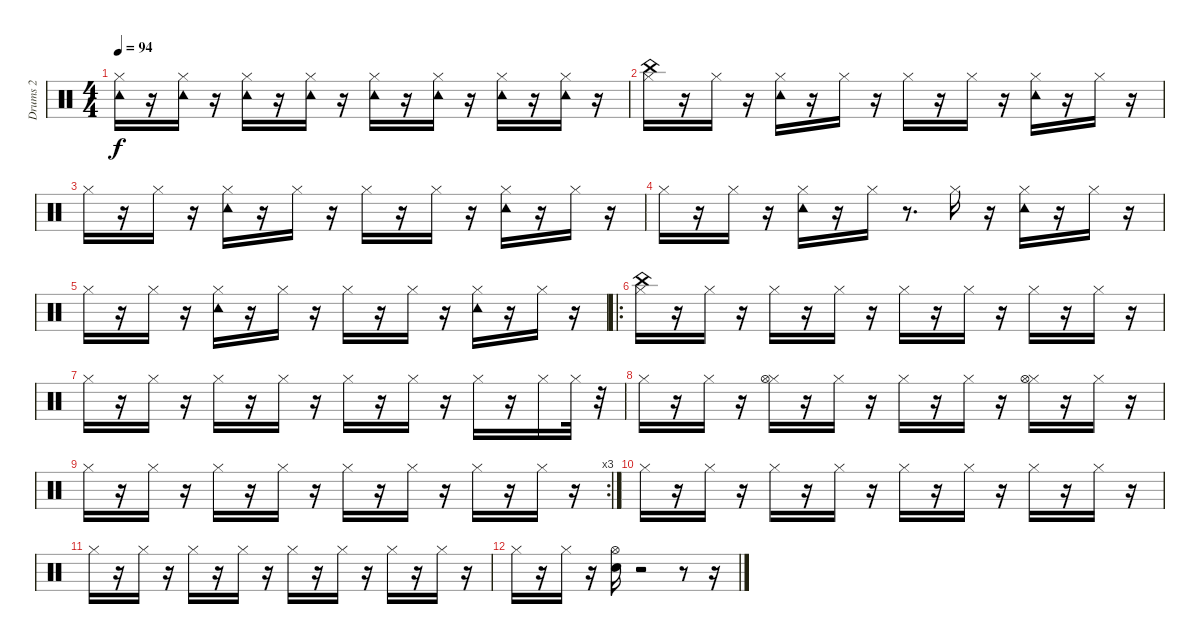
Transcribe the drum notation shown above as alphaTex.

\track ("Drums 2" "Drums 2") {instrument percussion}
\staff {score}
\articulation defaults
\ts (4 4)
\tempo 94
\clef neutral
\ks c
("Tambourine (hit)" "Hi-Hat (closed)").16{dy f} r.16 ("Hi-Hat (closed)" "Tambourine (hit)").16 r.16 ("Hi-Hat (closed)" "Tambourine (hit)").16 r.16 ("Tambourine (hit)" "Hi-Hat (closed)").16 r.16 ("Hi-Hat (closed)" "Tambourine (hit)").16 r.16 ("Hi-Hat (closed)" "Tambourine (hit)").16 r.16 ("Tambourine (hit)" "Hi-Hat (closed)").16 r.16 ("Hi-Hat (closed)" "Tambourine (hit)").16 r.16 |
("China (hit)" "Hi-Hat (closed)").16 r.16 "Hi-Hat (closed)".16 r.16 ("Hi-Hat (closed)" "Tambourine (hit)").16 r.16 "Hi-Hat (closed)".16 r.16 "Hi-Hat (closed)".16 r.16 "Hi-Hat (closed)".16 r.16 ("Tambourine (hit)" "Hi-Hat (closed)").16 r.16 "Hi-Hat (closed)".16 r.16 |
"Hi-Hat (closed)".16 r.16 "Hi-Hat (closed)".16 r.16 ("Hi-Hat (closed)" "Tambourine (hit)").16 r.16 "Hi-Hat (closed)".16 r.16 "Hi-Hat (closed)".16 r.16 "Hi-Hat (closed)".16 r.16 ("Hi-Hat (closed)" "Tambourine (hit)").16 r.16 "Hi-Hat (closed)".16 r.16 |
"Hi-Hat (closed)".16 r.16 "Hi-Hat (closed)".16 r.16 ("Tambourine (hit)" "Hi-Hat (closed)").16 r.16 "Hi-Hat (closed)".16 r.8{d} "Hi-Hat (closed)".16 r.16 ("Hi-Hat (closed)" "Tambourine (hit)").16 r.16 "Hi-Hat (closed)".16 r.16 |
"Hi-Hat (closed)".16 r.16 "Hi-Hat (closed)".16 r.16 ("Hi-Hat (closed)" "Tambourine (hit)").16 r.16 "Hi-Hat (closed)".16 r.16 "Hi-Hat (closed)".16 r.16 "Hi-Hat (closed)".16 r.16 ("Hi-Hat (closed)" "Tambourine (hit)").16 r.16 "Hi-Hat (closed)".16 r.16 |
\ro
("Hi-Hat (closed)" "China (hit)").16 r.16 "Hi-Hat (closed)".16 r.16 "Hi-Hat (closed)".16 r.16 "Hi-Hat (closed)".16 r.16 "Hi-Hat (closed)".16 r.16 "Hi-Hat (closed)".16 r.16 "Hi-Hat (closed)".16 r.16 "Hi-Hat (closed)".16 r.16 |
"Hi-Hat (closed)".16 r.16 "Hi-Hat (closed)".16 r.16 "Hi-Hat (closed)".16 r.16 "Hi-Hat (closed)".16 r.16 "Hi-Hat (closed)".16 r.16 "Hi-Hat (closed)".16 r.16 "Hi-Hat (closed)".16 r.16 "Hi-Hat (closed)".16 "Hi-Hat (closed)".32 r.32 |
"Hi-Hat (closed)".16 r.16 "Hi-Hat (closed)".16 r.16 ("Hi-Hat (closed)" "Hi-Hat (open)").16 r.16 "Hi-Hat (closed)".16 r.16 "Hi-Hat (closed)".16 r.16 "Hi-Hat (closed)".16 r.16 ("Hi-Hat (closed)" "Hi-Hat (open)").16 r.16 "Hi-Hat (closed)".16 r.16 |
\rc 3 "Hi-Hat (closed)".16
r.16 "Hi-Hat (closed)".16 r.16 "Hi-Hat (closed)".16 r.16 "Hi-Hat (closed)".16 r.16 "Hi-Hat (closed)".16 r.16 "Hi-Hat (closed)".16 r.16 "Hi-Hat (closed)".16 r.16 "Hi-Hat (closed)".16 r.16 |
"Hi-Hat (closed)".16 r.16 "Hi-Hat (closed)".16 r.16 "Hi-Hat (closed)".16 r.16 "Hi-Hat (closed)".16 r.16 "Hi-Hat (closed)".16 r.16 "Hi-Hat (closed)".16 r.16 "Hi-Hat (closed)".16 r.16 "Hi-Hat (closed)".16 r.16 |
"Hi-Hat (closed)".16 r.16 "Hi-Hat (closed)".16 r.16 "Hi-Hat (closed)".16 r.16 "Hi-Hat (closed)".16 r.16 "Hi-Hat (closed)".16 r.16 "Hi-Hat (closed)".16 r.16 "Hi-Hat (closed)".16 r.16 "Hi-Hat (closed)".16 r.16 |
"Hi-Hat (closed)".16 r.16 "Hi-Hat (closed)".16 r.16 ("Electric Snare (hit)" "Hi-Hat (open)").16 r.2 r.8 r.16
